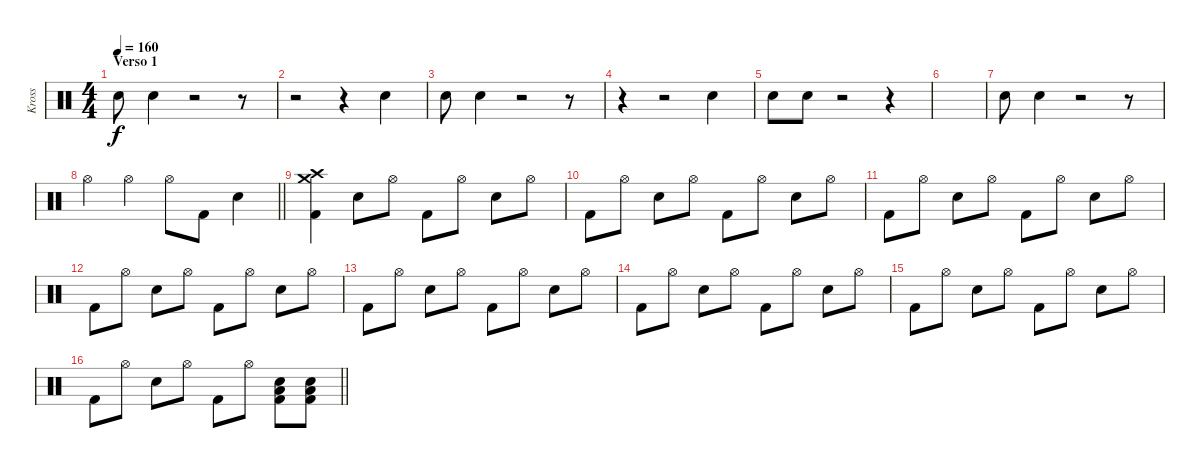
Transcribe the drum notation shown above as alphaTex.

\track ("Kross" "Kross") {instrument percussion}
\staff {score}
\articulation defaults
\ts (4 4)
\section ("" "Verso 1")
\tempo 160
\clef neutral
\ks c "Electric Snare (hit)".8{dy f} "Electric Snare (hit)".4
r.2 r.8 |
r.2 r.4 "Electric Snare (hit)".4 |
"Electric Snare (hit)".8 "Electric Snare (hit)".4 r.2 r.8 |
r.4 r.2 "Electric Snare (hit)".4 |
"Electric Snare (hit)".8 "Electric Snare (hit)".8 r.2 r.4 |
|
"Electric Snare (hit)".8 "Electric Snare (hit)".4 r.2 r.8 |
\barLineRight lightlight "Hi-Hat (open)".4 "Hi-Hat (open)".4 "Hi-Hat (open)".8 "Kick (hit) 2".8 "Electric Snare (hit)".4
|
("Crash high (hit)" "Crash medium (hit)" "Kick (hit) 2").4 "Electric Snare (hit)".8 "Hi-Hat (open)".8 "Kick (hit) 2".8 "Hi-Hat (open)".8 "Electric Snare (hit)".8 "Hi-Hat (open)".8 |
"Kick (hit) 2".8 "Hi-Hat (open)".8 "Electric Snare (hit)".8 "Hi-Hat (open)".8 "Kick (hit) 2".8 "Hi-Hat (open)".8 "Electric Snare (hit)".8 "Hi-Hat (open)".8 |
"Kick (hit) 2".8 "Hi-Hat (open)".8 "Electric Snare (hit)".8 "Hi-Hat (open)".8 "Kick (hit) 2".8 "Hi-Hat (open)".8 "Electric Snare (hit)".8 "Hi-Hat (open)".8 |
"Kick (hit) 2".8 "Hi-Hat (open)".8 "Electric Snare (hit)".8 "Hi-Hat (open)".8 "Kick (hit) 2".8 "Hi-Hat (open)".8 "Electric Snare (hit)".8 "Hi-Hat (open)".8 |
"Kick (hit) 2".8 "Hi-Hat (open)".8 "Electric Snare (hit)".8 "Hi-Hat (open)".8 "Kick (hit) 2".8 "Hi-Hat (open)".8 "Electric Snare (hit)".8 "Hi-Hat (open)".8 |
"Kick (hit) 2".8 "Hi-Hat (open)".8 "Electric Snare (hit)".8 "Hi-Hat (open)".8 "Kick (hit) 2".8 "Hi-Hat (open)".8 "Electric Snare (hit)".8 "Hi-Hat (open)".8 |
"Kick (hit) 2".8 "Hi-Hat (open)".8 "Electric Snare (hit)".8 "Hi-Hat (open)".8 "Kick (hit) 2".8 "Hi-Hat (open)".8 "Electric Snare (hit)".8 "Hi-Hat (open)".8 |
\barLineRight lightlight "Kick (hit) 2".8 "Hi-Hat (open)".8 "Electric Snare (hit)".8 "Hi-Hat (open)".8 "Kick (hit) 2".8 "Hi-Hat (open)".8
("Electric Snare (hit)" "Low Floor Tom (hit)" "Kick (hit) 2").8 ("Electric Snare (hit)" "Low Floor Tom (hit)" "Kick (hit) 2").8
